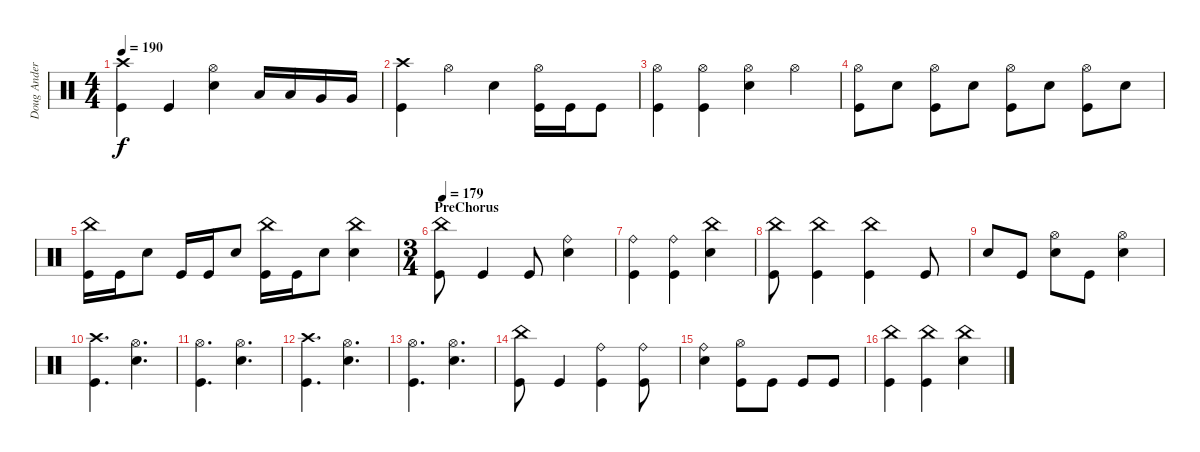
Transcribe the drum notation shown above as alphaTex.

\track ("Doug Anderson" "Doug Ander") {instrument percussion}
\staff {score}
\articulation defaults
\ts (4 4)
\tempo 190
\clef neutral
\ks c
("Crash high (hit)" "Kick (hit)").4{dy f} "Kick (hit)".4 ("Snare (hit) 2" "Hi-Hat (open)").4 "Low Tom (hit)".16 "Low Tom (hit)".16 "Very Low Tom (hit)".16 "Very Low Tom (hit)".16 |
("Kick (hit)" "Crash high (hit)").4 "Hi-Hat (open)".4 "Snare (hit) 2".4 ("Hi-Hat (open)" "Kick (hit)").16 "Kick (hit)".16 "Kick (hit)".8 |
("Kick (hit)" "Hi-Hat (open)").4 ("Kick (hit)" "Hi-Hat (open)").4 ("Hi-Hat (open)" "Snare (hit) 2").4 "Hi-Hat (open)".4 |
("Kick (hit)" "Hi-Hat (open)").8 "Snare (hit) 2".8 ("Kick (hit)" "Hi-Hat (open)").8 "Snare (hit) 2".8 ("Kick (hit)" "Hi-Hat (open)").8 "Snare (hit) 2".8 ("Kick (hit)" "Hi-Hat (open)").8 "Snare (hit) 2".8 |
("Kick (hit)" "China (hit)").16 "Kick (hit)".16 "Snare (hit) 2".8 "Kick (hit)".16 "Kick (hit)".16 "Snare (hit) 2".8 ("Kick (hit)" "China (hit)").16 "Kick (hit)".16 "Snare (hit) 2".8 ("Snare (hit) 2" "China (hit)").4 |
\ts (3 4)
\section ("" "PreChorus")
\tempo 179
("Kick (hit)" "China (hit)").8 "Kick (hit)".4 "Kick (hit)".8 ("Snare (hit) 2" "Ride (bell)").4 |
("Kick (hit)" "Ride (bell)").4 ("Kick (hit)" "Ride (bell)").4 ("Snare (hit) 2" "China (hit)").4 |
("Kick (hit)" "China (hit)").8 ("Kick (hit)" "China (hit)").4 ("Kick (hit)" "China (hit)").4 "Kick (hit)".8 |
"Snare (hit) 2".8 "Kick (hit)".8 ("Snare (hit) 2" "Hi-Hat (open)").8 "Kick (hit)".8 ("Snare (hit) 2" "Hi-Hat (open)").4 |
("Kick (hit)" "Crash high (hit)").4{d} ("Snare (hit) 2" "Hi-Hat (open)").4{d} |
("Kick (hit)" "Hi-Hat (open)").4{d} ("Snare (hit) 2" "Hi-Hat (open)").4{d} |
("Kick (hit)" "Crash high (hit)").4{d} ("Snare (hit) 2" "Hi-Hat (open)").4{d} |
("Kick (hit)" "Hi-Hat (open)").4{d} ("Snare (hit) 2" "Hi-Hat (open)").4{d} |
("Kick (hit)" "China (hit)").8 "Kick (hit)".4 ("Kick (hit)" "Ride (bell)").4 ("Kick (hit)" "Ride (bell)").8 |
("Snare (hit) 2" "Ride (bell)").4 ("Kick (hit)" "Hi-Hat (open)").8 "Kick (hit)".8 "Kick (hit)".8 "Kick (hit)".8 |
("Kick (hit)" "China (hit)").4 ("Kick (hit)" "China (hit)").4 ("Snare (hit) 2" "China (hit)").4
